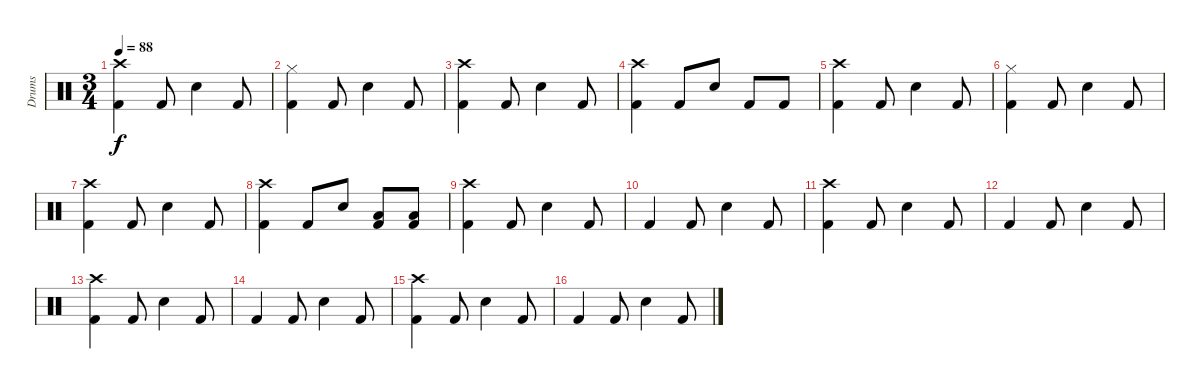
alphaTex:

\track ("Drums" "Drums") {instrument percussion}
\staff {score}
\articulation defaults
\ts (3 4)
\tempo 88
\clef neutral
\ks c
("Crash high (hit)" "Kick (hit) 2").4{dy f} "Kick (hit) 2".8 "Snare (hit) 2".4 "Kick (hit) 2".8 |
("Hi-Hat (closed)" "Kick (hit) 2").4 "Kick (hit) 2".8 "Snare (hit) 2".4 "Kick (hit) 2".8 |
("Crash high (hit)" "Kick (hit) 2").4 "Kick (hit) 2".8 "Snare (hit) 2".4 "Kick (hit) 2".8 |
("Crash high (hit)" "Kick (hit) 2").4 "Kick (hit) 2".8 "Snare (hit) 2".8 "Kick (hit) 2".8 "Kick (hit) 2".8 |
("Crash high (hit)" "Kick (hit) 2").4 "Kick (hit) 2".8 "Snare (hit) 2".4 "Kick (hit) 2".8 |
("Hi-Hat (closed)" "Kick (hit) 2").4 "Kick (hit) 2".8 "Snare (hit) 2".4 "Kick (hit) 2".8 |
("Crash high (hit)" "Kick (hit) 2").4 "Kick (hit) 2".8 "Snare (hit) 2".4 "Kick (hit) 2".8 |
("Crash high (hit)" "Kick (hit) 2").4 "Kick (hit) 2".8 "Snare (hit) 2".8 ("Low Tom (hit)" "Kick (hit) 2").8 ("Low Tom (hit)" "Kick (hit) 2").8 |
("Crash high (hit)" "Kick (hit) 2").4 "Kick (hit) 2".8 "Snare (hit) 2".4 "Kick (hit) 2".8 |
"Kick (hit) 2".4 "Kick (hit) 2".8 "Snare (hit) 2".4 "Kick (hit) 2".8 |
("Crash high (hit)" "Kick (hit) 2").4 "Kick (hit) 2".8 "Snare (hit) 2".4 "Kick (hit) 2".8 |
"Kick (hit) 2".4 "Kick (hit) 2".8 "Snare (hit) 2".4 "Kick (hit) 2".8 |
("Crash high (hit)" "Kick (hit) 2").4 "Kick (hit) 2".8 "Snare (hit) 2".4 "Kick (hit) 2".8 |
"Kick (hit) 2".4 "Kick (hit) 2".8 "Snare (hit) 2".4 "Kick (hit) 2".8 |
("Crash high (hit)" "Kick (hit) 2").4 "Kick (hit) 2".8 "Snare (hit) 2".4 "Kick (hit) 2".8 |
"Kick (hit) 2".4 "Kick (hit) 2".8 "Snare (hit) 2".4 "Kick (hit) 2".8
